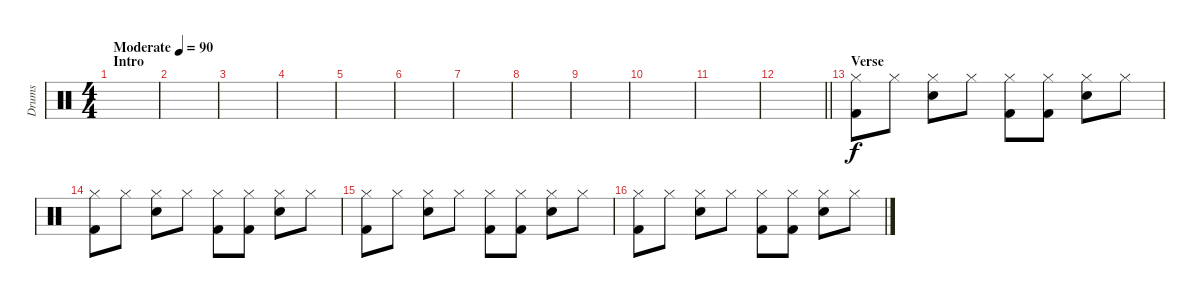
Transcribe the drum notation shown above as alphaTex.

\track ("Drums" "Drums") {instrument percussion}
\staff {score}
\articulation defaults
\ts (4 4)
\section ("" "Intro")
\tempo (90 "Moderate")
\clef neutral
\ks c
|
|
|
|
|
|
|
|
|
|
|
\barLineRight lightlight
|
\section ("" "Verse")
("Hi-Hat (closed)" "Kick (hit) 2").8 "Hi-Hat (closed)".8 ("Hi-Hat (closed)" "Electric Snare (hit)").8 "Hi-Hat (closed)".8 ("Hi-Hat (closed)" "Kick (hit) 2").8 ("Hi-Hat (closed)" "Kick (hit) 2").8 ("Hi-Hat (closed)" "Electric Snare (hit)").8 "Hi-Hat (closed)".8 |
("Hi-Hat (closed)" "Kick (hit) 2").8 "Hi-Hat (closed)".8 ("Hi-Hat (closed)" "Electric Snare (hit)").8 "Hi-Hat (closed)".8 ("Hi-Hat (closed)" "Kick (hit) 2").8 ("Hi-Hat (closed)" "Kick (hit) 2").8 ("Hi-Hat (closed)" "Electric Snare (hit)").8 "Hi-Hat (closed)".8 |
("Hi-Hat (closed)" "Kick (hit) 2").8 "Hi-Hat (closed)".8 ("Hi-Hat (closed)" "Electric Snare (hit)").8 "Hi-Hat (closed)".8 ("Hi-Hat (closed)" "Kick (hit) 2").8 ("Hi-Hat (closed)" "Kick (hit) 2").8 ("Hi-Hat (closed)" "Electric Snare (hit)").8 "Hi-Hat (closed)".8 |
("Hi-Hat (closed)" "Kick (hit) 2").8 "Hi-Hat (closed)".8 ("Hi-Hat (closed)" "Electric Snare (hit)").8 "Hi-Hat (closed)".8 ("Hi-Hat (closed)" "Kick (hit) 2").8 ("Hi-Hat (closed)" "Kick (hit) 2").8 ("Hi-Hat (closed)" "Electric Snare (hit)").8 "Hi-Hat (closed)".8
